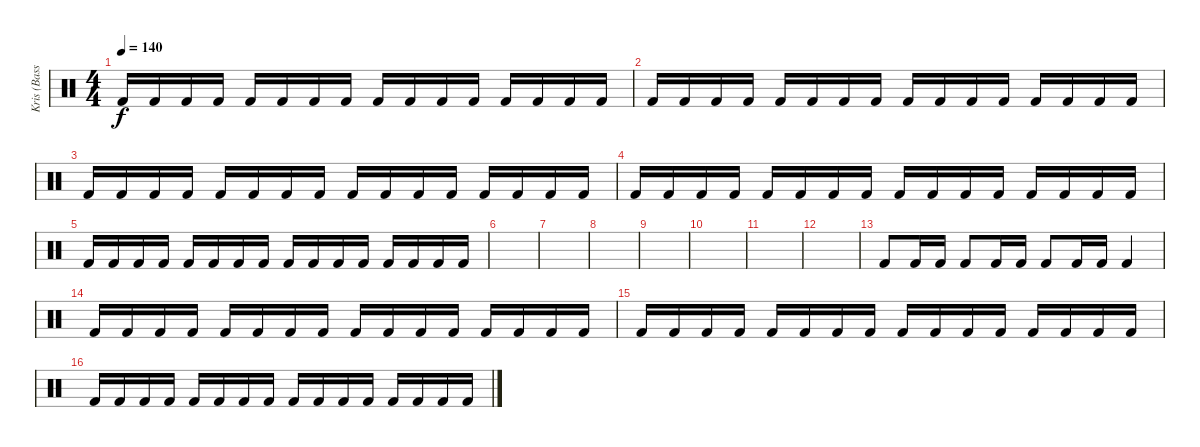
\track ("Kris (Bass Drums)" "Kris (Bass") {instrument percussion}
\staff {score}
\articulation defaults
\ts (4 4)
\tempo 140
\clef neutral
\ks c "Kick (hit) 2".16{dy f} "Kick (hit) 2".16 "Kick (hit) 2".16 "Kick (hit) 2".16 "Kick (hit) 2".16 "Kick (hit) 2".16 "Kick (hit) 2".16 "Kick (hit) 2".16 "Kick (hit) 2".16 "Kick (hit) 2".16 "Kick (hit) 2".16 "Kick (hit) 2".16 "Kick (hit) 2".16 "Kick (hit) 2".16 "Kick (hit) 2".16 "Kick (hit) 2".16
|
"Kick (hit) 2".16 "Kick (hit) 2".16 "Kick (hit) 2".16 "Kick (hit) 2".16 "Kick (hit) 2".16 "Kick (hit) 2".16 "Kick (hit) 2".16 "Kick (hit) 2".16 "Kick (hit) 2".16 "Kick (hit) 2".16 "Kick (hit) 2".16 "Kick (hit) 2".16 "Kick (hit) 2".16 "Kick (hit) 2".16 "Kick (hit) 2".16 "Kick (hit) 2".16 |
"Kick (hit) 2".16 "Kick (hit) 2".16 "Kick (hit) 2".16 "Kick (hit) 2".16 "Kick (hit) 2".16 "Kick (hit) 2".16 "Kick (hit) 2".16 "Kick (hit) 2".16 "Kick (hit) 2".16 "Kick (hit) 2".16 "Kick (hit) 2".16 "Kick (hit) 2".16 "Kick (hit) 2".16 "Kick (hit) 2".16 "Kick (hit) 2".16 "Kick (hit) 2".16 |
"Kick (hit) 2".16 "Kick (hit) 2".16 "Kick (hit) 2".16 "Kick (hit) 2".16 "Kick (hit) 2".16 "Kick (hit) 2".16 "Kick (hit) 2".16 "Kick (hit) 2".16 "Kick (hit) 2".16 "Kick (hit) 2".16 "Kick (hit) 2".16 "Kick (hit) 2".16 "Kick (hit) 2".16 "Kick (hit) 2".16 "Kick (hit) 2".16 "Kick (hit) 2".16 |
"Kick (hit) 2".16 "Kick (hit) 2".16 "Kick (hit) 2".16 "Kick (hit) 2".16 "Kick (hit) 2".16 "Kick (hit) 2".16 "Kick (hit) 2".16 "Kick (hit) 2".16 "Kick (hit) 2".16 "Kick (hit) 2".16 "Kick (hit) 2".16 "Kick (hit) 2".16 "Kick (hit) 2".16 "Kick (hit) 2".16 "Kick (hit) 2".16 "Kick (hit) 2".16 |
|
|
|
|
|
|
|
"Kick (hit) 2".8 "Kick (hit) 2".16 "Kick (hit) 2".16 "Kick (hit) 2".8 "Kick (hit) 2".16 "Kick (hit) 2".16 "Kick (hit) 2".8 "Kick (hit) 2".16 "Kick (hit) 2".16 "Kick (hit) 2".4 |
"Kick (hit) 2".16 "Kick (hit) 2".16 "Kick (hit) 2".16 "Kick (hit) 2".16 "Kick (hit) 2".16 "Kick (hit) 2".16 "Kick (hit) 2".16 "Kick (hit) 2".16 "Kick (hit) 2".16 "Kick (hit) 2".16 "Kick (hit) 2".16 "Kick (hit) 2".16 "Kick (hit) 2".16 "Kick (hit) 2".16 "Kick (hit) 2".16 "Kick (hit) 2".16 |
"Kick (hit) 2".16 "Kick (hit) 2".16 "Kick (hit) 2".16 "Kick (hit) 2".16 "Kick (hit) 2".16 "Kick (hit) 2".16 "Kick (hit) 2".16 "Kick (hit) 2".16 "Kick (hit) 2".16 "Kick (hit) 2".16 "Kick (hit) 2".16 "Kick (hit) 2".16 "Kick (hit) 2".16 "Kick (hit) 2".16 "Kick (hit) 2".16 "Kick (hit) 2".16 |
"Kick (hit) 2".16 "Kick (hit) 2".16 "Kick (hit) 2".16 "Kick (hit) 2".16 "Kick (hit) 2".16 "Kick (hit) 2".16 "Kick (hit) 2".16 "Kick (hit) 2".16 "Kick (hit) 2".16 "Kick (hit) 2".16 "Kick (hit) 2".16 "Kick (hit) 2".16 "Kick (hit) 2".16 "Kick (hit) 2".16 "Kick (hit) 2".16 "Kick (hit) 2".16
